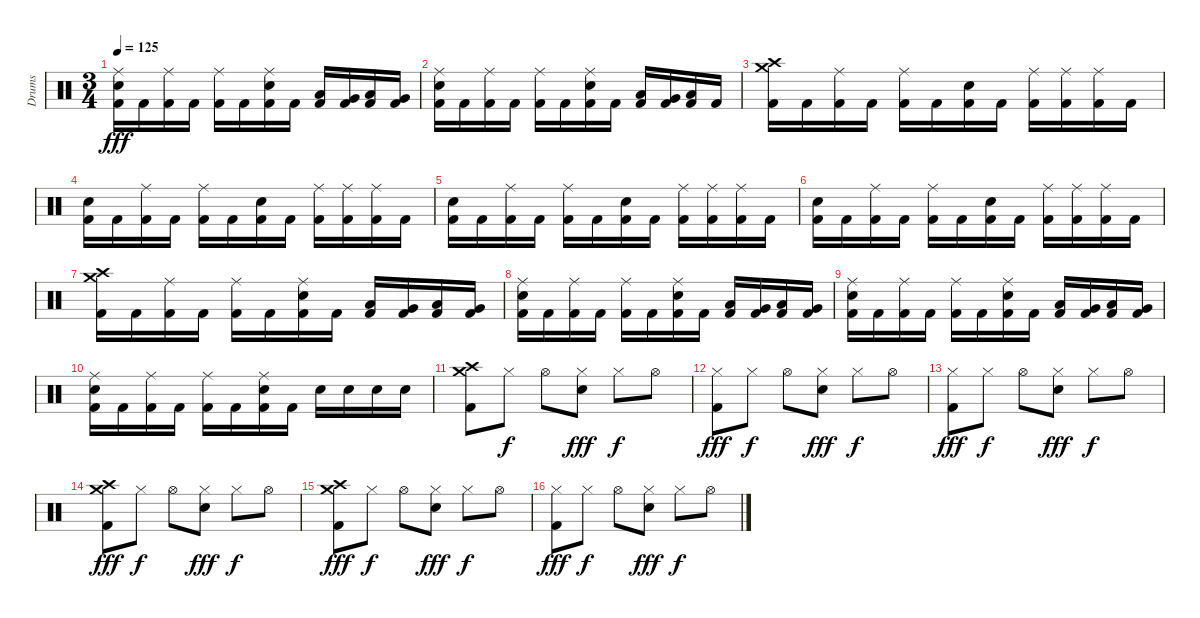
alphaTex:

\track ("Drums" "Drums") {instrument percussion}
\staff {score}
\articulation defaults
\ts (3 4)
\tempo 125
\clef neutral
\ks c
("Kick (hit) 2" "Electric Snare (hit)" "Ride (middle)").16{dy fff} "Kick (hit) 2".16 ("Kick (hit) 2" "Ride (middle)").16 "Kick (hit) 2".16 ("Kick (hit) 2" "Ride (middle)").16 "Kick (hit) 2".16 ("Kick (hit) 2" "Electric Snare (hit)" "Ride (middle)").16 "Kick (hit) 2".16 ("Kick (hit) 2" "Low Tom (hit)").16 ("Kick (hit) 2" "Very Low Tom (hit)").16 ("Kick (hit) 2" "Low Tom (hit)").16 ("Kick (hit) 2" "Very Low Tom (hit)").16 |
("Kick (hit) 2" "Electric Snare (hit)" "Ride (middle)").16 "Kick (hit) 2".16 ("Kick (hit) 2" "Ride (middle)").16 "Kick (hit) 2".16 ("Kick (hit) 2" "Ride (middle)").16 "Kick (hit) 2".16 ("Kick (hit) 2" "Electric Snare (hit)" "Ride (middle)").16 "Kick (hit) 2".16 ("Kick (hit) 2" "Low Tom (hit)").16 ("Kick (hit) 2" "Very Low Tom (hit)").16 ("Kick (hit) 2" "Low Tom (hit)").16 "Kick (hit) 2".16 |
("Kick (hit) 2" "Crash high (hit)" "Crash medium (hit)").16 "Kick (hit) 2".16 ("Kick (hit) 2" "Ride (middle)").16 "Kick (hit) 2".16 ("Kick (hit) 2" "Ride (middle)").16 "Kick (hit) 2".16 ("Kick (hit) 2" "Electric Snare (hit)").16 "Kick (hit) 2".16 ("Kick (hit) 2" "Ride (middle)").16 ("Kick (hit) 2" "Ride (middle)").16 ("Kick (hit) 2" "Ride (middle)").16 "Kick (hit) 2".16 |
("Kick (hit) 2" "Electric Snare (hit)").16 "Kick (hit) 2".16 ("Kick (hit) 2" "Ride (middle)").16 "Kick (hit) 2".16 ("Kick (hit) 2" "Ride (middle)").16 "Kick (hit) 2".16 ("Kick (hit) 2" "Electric Snare (hit)").16 "Kick (hit) 2".16 ("Kick (hit) 2" "Ride (middle)").16 ("Kick (hit) 2" "Ride (middle)").16 ("Kick (hit) 2" "Ride (middle)").16 "Kick (hit) 2".16 |
("Kick (hit) 2" "Electric Snare (hit)").16 "Kick (hit) 2".16 ("Kick (hit) 2" "Ride (middle)").16 "Kick (hit) 2".16 ("Kick (hit) 2" "Ride (middle)").16 "Kick (hit) 2".16 ("Kick (hit) 2" "Electric Snare (hit)").16 "Kick (hit) 2".16 ("Kick (hit) 2" "Ride (middle)").16 ("Kick (hit) 2" "Ride (middle)").16 ("Kick (hit) 2" "Ride (middle)").16 "Kick (hit) 2".16 |
("Kick (hit) 2" "Electric Snare (hit)").16 "Kick (hit) 2".16 ("Kick (hit) 2" "Ride (middle)").16 "Kick (hit) 2".16 ("Kick (hit) 2" "Ride (middle)").16 "Kick (hit) 2".16 ("Kick (hit) 2" "Electric Snare (hit)").16 "Kick (hit) 2".16 ("Kick (hit) 2" "Ride (middle)").16 ("Kick (hit) 2" "Ride (middle)").16 ("Kick (hit) 2" "Ride (middle)").16 "Kick (hit) 2".16 |
("Kick (hit) 2" "Crash medium (hit)" "Crash high (hit)").16 "Kick (hit) 2".16 ("Kick (hit) 2" "Ride (middle)").16 "Kick (hit) 2".16 ("Kick (hit) 2" "Ride (middle)").16 "Kick (hit) 2".16 ("Kick (hit) 2" "Electric Snare (hit)" "Ride (middle)").16 "Kick (hit) 2".16 ("Kick (hit) 2" "Low Tom (hit)").16 ("Kick (hit) 2" "Very Low Tom (hit)").16 ("Kick (hit) 2" "Low Tom (hit)").16 ("Kick (hit) 2" "Very Low Tom (hit)").16 |
("Kick (hit) 2" "Electric Snare (hit)" "Ride (middle)").16 "Kick (hit) 2".16 ("Kick (hit) 2" "Ride (middle)").16 "Kick (hit) 2".16 ("Kick (hit) 2" "Ride (middle)").16 "Kick (hit) 2".16 ("Kick (hit) 2" "Electric Snare (hit)" "Ride (middle)").16 "Kick (hit) 2".16 ("Kick (hit) 2" "Low Tom (hit)").16 ("Kick (hit) 2" "Very Low Tom (hit)").16 ("Kick (hit) 2" "Low Tom (hit)").16 ("Kick (hit) 2" "Very Low Tom (hit)").16 |
("Kick (hit) 2" "Electric Snare (hit)" "Ride (middle)").16 "Kick (hit) 2".16 ("Kick (hit) 2" "Ride (middle)").16 "Kick (hit) 2".16 ("Kick (hit) 2" "Ride (middle)").16 "Kick (hit) 2".16 ("Kick (hit) 2" "Electric Snare (hit)" "Ride (middle)").16 "Kick (hit) 2".16 ("Kick (hit) 2" "Low Tom (hit)").16 ("Kick (hit) 2" "Very Low Tom (hit)").16 ("Kick (hit) 2" "Low Tom (hit)").16 ("Kick (hit) 2" "Very Low Tom (hit)").16 |
("Kick (hit) 2" "Electric Snare (hit)" "Ride (middle)").16 "Kick (hit) 2".16 ("Kick (hit) 2" "Ride (middle)").16 "Kick (hit) 2".16 ("Kick (hit) 2" "Ride (middle)").16 "Kick (hit) 2".16 ("Kick (hit) 2" "Electric Snare (hit)" "Ride (middle)").16 "Kick (hit) 2".16 "Electric Snare (hit)".16 "Electric Snare (hit)".16 "Electric Snare (hit)".16 "Electric Snare (hit)".16 |
("Kick (hit) 2" "Crash medium (hit)" "Crash high (hit)").8 "Hi-Hat (closed)".8{dy f} "Hi-Hat (open)".8 ("Electric Snare (hit)" "Hi-Hat (closed)").8{dy fff} "Hi-Hat (closed)".8{dy f} "Hi-Hat (open)".8 |
("Kick (hit) 2" "Hi-Hat (closed)").8{dy fff} "Hi-Hat (closed)".8{dy f} "Hi-Hat (open)".8 ("Electric Snare (hit)" "Hi-Hat (closed)").8{dy fff} "Hi-Hat (closed)".8{dy f} "Hi-Hat (open)".8 |
("Kick (hit) 2" "Hi-Hat (closed)").8{dy fff} "Hi-Hat (closed)".8{dy f} "Hi-Hat (open)".8 ("Electric Snare (hit)" "Hi-Hat (closed)").8{dy fff} "Hi-Hat (closed)".8{dy f} "Hi-Hat (open)".8 |
("Kick (hit) 2" "Crash medium (hit)" "Crash high (hit)").8{dy fff} "Hi-Hat (closed)".8{dy f} "Hi-Hat (open)".8 ("Electric Snare (hit)" "Hi-Hat (closed)").8{dy fff} "Hi-Hat (closed)".8{dy f} "Hi-Hat (open)".8 |
("Kick (hit) 2" "Crash medium (hit)" "Crash high (hit)").8{dy fff} "Hi-Hat (closed)".8{dy f} "Hi-Hat (open)".8 ("Electric Snare (hit)" "Hi-Hat (closed)").8{dy fff} "Hi-Hat (closed)".8{dy f} "Hi-Hat (open)".8 |
("Kick (hit) 2" "Hi-Hat (closed)").8{dy fff} "Hi-Hat (closed)".8{dy f} "Hi-Hat (open)".8 ("Electric Snare (hit)" "Hi-Hat (closed)").8{dy fff} "Hi-Hat (closed)".8{dy f} "Hi-Hat (open)".8
